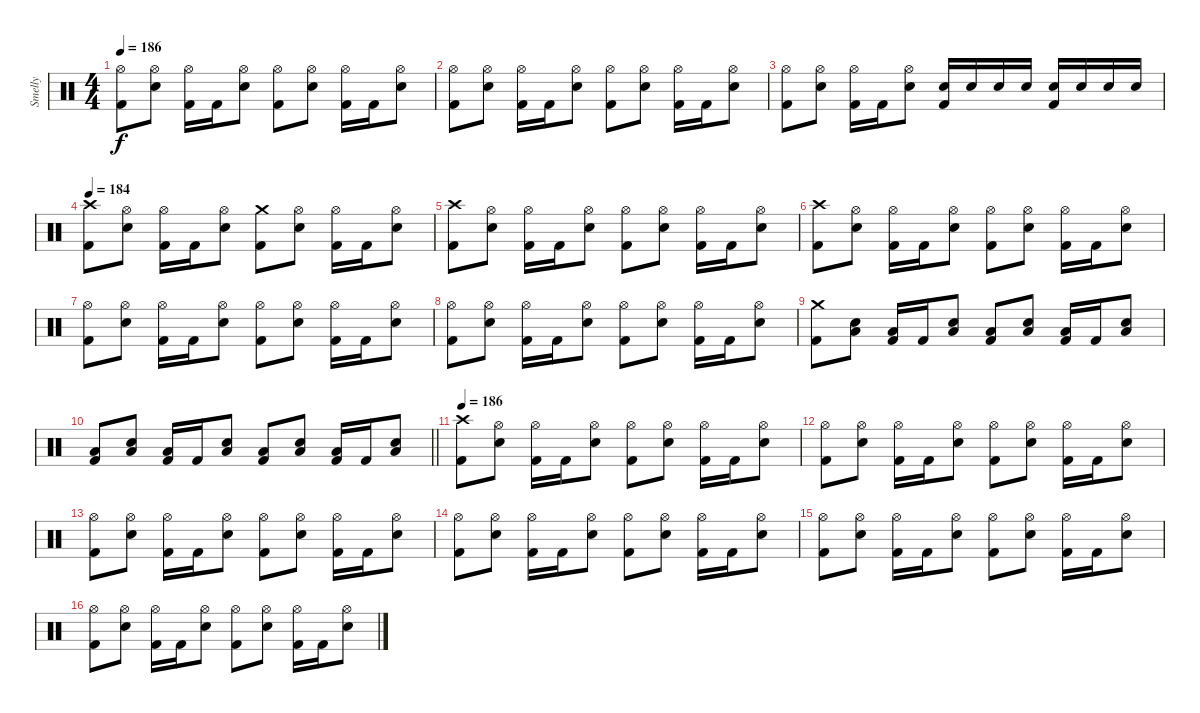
\track ("Smelly" "Smelly") {instrument percussion}
\staff {score}
\articulation defaults
\ts (4 4)
\tempo 186
\clef neutral
\ks c
("Hi-Hat (open)" "Kick (hit) 2").8{dy f} ("Hi-Hat (open)" "Electric Snare (hit)").8 ("Hi-Hat (open)" "Kick (hit) 2").16 "Kick (hit) 2".16 ("Hi-Hat (open)" "Electric Snare (hit)").8 ("Hi-Hat (open)" "Kick (hit) 2").8 ("Hi-Hat (open)" "Electric Snare (hit)").8 ("Hi-Hat (open)" "Kick (hit) 2").16 "Kick (hit) 2".16 ("Hi-Hat (open)" "Electric Snare (hit)").8 |
("Hi-Hat (open)" "Kick (hit) 2").8 ("Hi-Hat (open)" "Electric Snare (hit)").8 ("Hi-Hat (open)" "Kick (hit) 2").16 "Kick (hit) 2".16 ("Hi-Hat (open)" "Electric Snare (hit)").8 ("Hi-Hat (open)" "Kick (hit) 2").8 ("Hi-Hat (open)" "Electric Snare (hit)").8 ("Hi-Hat (open)" "Kick (hit) 2").16 "Kick (hit) 2".16 ("Hi-Hat (open)" "Electric Snare (hit)").8 |
("Hi-Hat (open)" "Kick (hit) 2").8 ("Hi-Hat (open)" "Electric Snare (hit)").8 ("Hi-Hat (open)" "Kick (hit) 2").16 "Kick (hit) 2".16 ("Hi-Hat (open)" "Electric Snare (hit)").8 ("Electric Snare (hit)" "Kick (hit) 2").16 "Electric Snare (hit)".16 "Electric Snare (hit)".16 "Electric Snare (hit)".16 ("Electric Snare (hit)" "Kick (hit) 2").16 "Electric Snare (hit)".16 "Electric Snare (hit)".16 "Electric Snare (hit)".16 |
\tempo 184
("Crash high (hit)" "Kick (hit) 2").8 ("Hi-Hat (open)" "Electric Snare (hit)").8 ("Hi-Hat (open)" "Kick (hit) 2").16 "Kick (hit) 2".16 ("Hi-Hat (open)" "Electric Snare (hit)").8 ("Crash medium (hit)" "Kick (hit) 2").8 ("Hi-Hat (open)" "Electric Snare (hit)").8 ("Hi-Hat (open)" "Kick (hit) 2").16 "Kick (hit) 2".16 ("Hi-Hat (open)" "Electric Snare (hit)").8 |
("Crash high (hit)" "Kick (hit) 2").8 ("Hi-Hat (open)" "Electric Snare (hit)").8 ("Hi-Hat (open)" "Kick (hit) 2").16 "Kick (hit) 2".16 ("Hi-Hat (open)" "Electric Snare (hit)").8 ("Hi-Hat (open)" "Kick (hit) 2").8 ("Hi-Hat (open)" "Electric Snare (hit)").8 ("Hi-Hat (open)" "Kick (hit) 2").16 "Kick (hit) 2".16 ("Hi-Hat (open)" "Electric Snare (hit)").8 |
("Crash high (hit)" "Kick (hit) 2").8 ("Hi-Hat (open)" "Electric Snare (hit)").8 ("Hi-Hat (open)" "Kick (hit) 2").16 "Kick (hit) 2".16 ("Hi-Hat (open)" "Electric Snare (hit)").8 ("Hi-Hat (open)" "Kick (hit) 2").8 ("Hi-Hat (open)" "Electric Snare (hit)").8 ("Hi-Hat (open)" "Kick (hit) 2").16 "Kick (hit) 2".16 ("Hi-Hat (open)" "Electric Snare (hit)").8 |
("Hi-Hat (open)" "Kick (hit) 2").8 ("Hi-Hat (open)" "Electric Snare (hit)").8 ("Hi-Hat (open)" "Kick (hit) 2").16 "Kick (hit) 2".16 ("Hi-Hat (open)" "Electric Snare (hit)").8 ("Hi-Hat (open)" "Kick (hit) 2").8 ("Hi-Hat (open)" "Electric Snare (hit)").8 ("Hi-Hat (open)" "Kick (hit) 2").16 "Kick (hit) 2".16 ("Hi-Hat (open)" "Electric Snare (hit)").8 |
("Hi-Hat (open)" "Kick (hit) 2").8 ("Hi-Hat (open)" "Electric Snare (hit)").8 ("Hi-Hat (open)" "Kick (hit) 2").16 "Kick (hit) 2".16 ("Hi-Hat (open)" "Electric Snare (hit)").8 ("Hi-Hat (open)" "Kick (hit) 2").8 ("Hi-Hat (open)" "Electric Snare (hit)").8 ("Hi-Hat (open)" "Kick (hit) 2").16 "Kick (hit) 2".16 ("Hi-Hat (open)" "Electric Snare (hit)").8 |
("Crash medium (hit)" "Kick (hit) 2").8 ("Electric Snare (hit)" "Low Floor Tom (hit)").8 ("Low Floor Tom (hit)" "Kick (hit) 2").16 "Kick (hit) 2".16 ("Electric Snare (hit)" "Low Floor Tom (hit)").8 ("Low Floor Tom (hit)" "Kick (hit) 2").8 ("Electric Snare (hit)" "Low Floor Tom (hit)").8 ("Low Floor Tom (hit)" "Kick (hit) 2").16 "Kick (hit) 2".16 ("Electric Snare (hit)" "Low Floor Tom (hit)").8 |
\barLineRight lightlight
("Low Floor Tom (hit)" "Kick (hit) 2").8 ("Electric Snare (hit)" "Low Floor Tom (hit)").8 ("Low Floor Tom (hit)" "Kick (hit) 2").16 "Kick (hit) 2".16 ("Electric Snare (hit)" "Low Floor Tom (hit)").8 ("Low Floor Tom (hit)" "Kick (hit) 2").8 ("Electric Snare (hit)" "Low Floor Tom (hit)").8 ("Low Floor Tom (hit)" "Kick (hit) 2").16 "Kick (hit) 2".16 ("Electric Snare (hit)" "Low Floor Tom (hit)").8 |
\section ("" "")
\tempo 186
("Crash high (hit)" "Kick (hit) 2").8 ("Hi-Hat (open)" "Electric Snare (hit)").8 ("Hi-Hat (open)" "Kick (hit) 2").16 "Kick (hit) 2".16 ("Hi-Hat (open)" "Electric Snare (hit)").8 ("Hi-Hat (open)" "Kick (hit) 2").8 ("Hi-Hat (open)" "Electric Snare (hit)").8 ("Hi-Hat (open)" "Kick (hit) 2").16 "Kick (hit) 2".16 ("Hi-Hat (open)" "Electric Snare (hit)").8 |
("Hi-Hat (open)" "Kick (hit) 2").8 ("Hi-Hat (open)" "Electric Snare (hit)").8 ("Hi-Hat (open)" "Kick (hit) 2").16 "Kick (hit) 2".16 ("Hi-Hat (open)" "Electric Snare (hit)").8 ("Hi-Hat (open)" "Kick (hit) 2").8 ("Hi-Hat (open)" "Electric Snare (hit)").8 ("Hi-Hat (open)" "Kick (hit) 2").16 "Kick (hit) 2".16 ("Hi-Hat (open)" "Electric Snare (hit)").8 |
("Hi-Hat (open)" "Kick (hit) 2").8 ("Hi-Hat (open)" "Electric Snare (hit)").8 ("Hi-Hat (open)" "Kick (hit) 2").16 "Kick (hit) 2".16 ("Hi-Hat (open)" "Electric Snare (hit)").8 ("Hi-Hat (open)" "Kick (hit) 2").8 ("Hi-Hat (open)" "Electric Snare (hit)").8 ("Hi-Hat (open)" "Kick (hit) 2").16 "Kick (hit) 2".16 ("Hi-Hat (open)" "Electric Snare (hit)").8 |
("Hi-Hat (open)" "Kick (hit) 2").8 ("Hi-Hat (open)" "Electric Snare (hit)").8 ("Hi-Hat (open)" "Kick (hit) 2").16 "Kick (hit) 2".16 ("Hi-Hat (open)" "Electric Snare (hit)").8 ("Hi-Hat (open)" "Kick (hit) 2").8 ("Hi-Hat (open)" "Electric Snare (hit)").8 ("Hi-Hat (open)" "Kick (hit) 2").16 "Kick (hit) 2".16 ("Hi-Hat (open)" "Electric Snare (hit)").8 |
("Hi-Hat (open)" "Kick (hit) 2").8 ("Hi-Hat (open)" "Electric Snare (hit)").8 ("Hi-Hat (open)" "Kick (hit) 2").16 "Kick (hit) 2".16 ("Hi-Hat (open)" "Electric Snare (hit)").8 ("Hi-Hat (open)" "Kick (hit) 2").8 ("Hi-Hat (open)" "Electric Snare (hit)").8 ("Hi-Hat (open)" "Kick (hit) 2").16 "Kick (hit) 2".16 ("Hi-Hat (open)" "Electric Snare (hit)").8 |
("Hi-Hat (open)" "Kick (hit) 2").8 ("Hi-Hat (open)" "Electric Snare (hit)").8 ("Hi-Hat (open)" "Kick (hit) 2").16 "Kick (hit) 2".16 ("Hi-Hat (open)" "Electric Snare (hit)").8 ("Hi-Hat (open)" "Kick (hit) 2").8 ("Hi-Hat (open)" "Electric Snare (hit)").8 ("Hi-Hat (open)" "Kick (hit) 2").16 "Kick (hit) 2".16 ("Hi-Hat (open)" "Electric Snare (hit)").8
